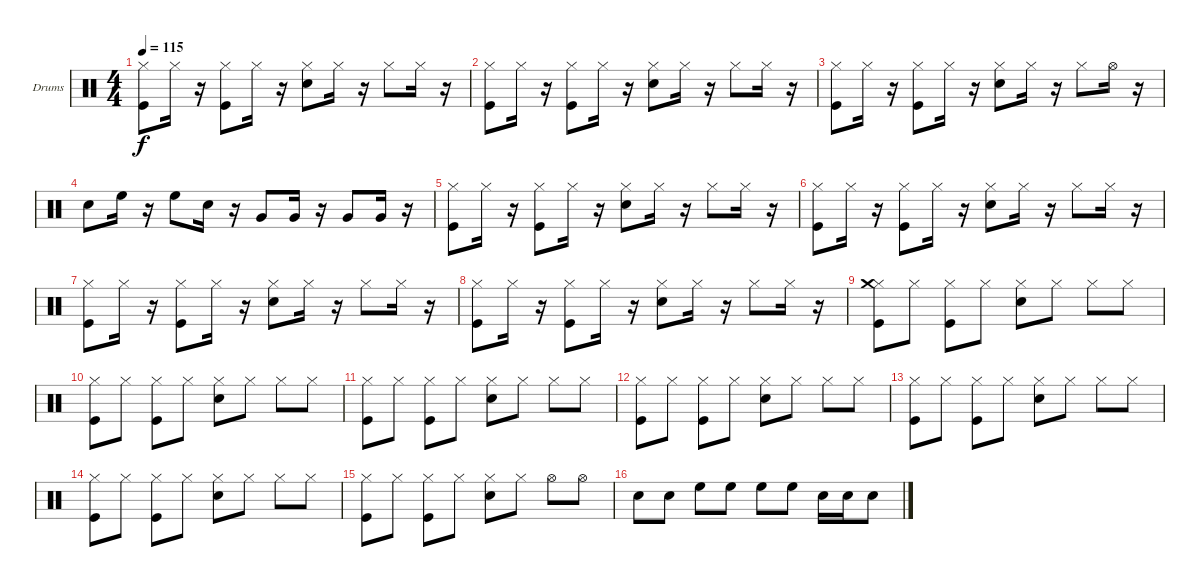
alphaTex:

\bracketExtendMode groupsimilarinstruments
\firstSystemTrackNameOrientation horizontal
\otherSystemsTrackNameOrientation horizontal
\track ("Drumkit" "Drums") {instrument percussion}
\staff {score}
\articulation defaults
\ts (4 4)
\tempo 115
\clef neutral
\ks c
("Hi-Hat (closed)" "Kick (hit)").8{dy f} "Hi-Hat (closed)".16 r.16 ("Hi-Hat (closed)" "Kick (hit)").8 "Hi-Hat (closed)".16 r.16 ("Hi-Hat (closed)" "Snare (hit) 2").8 "Hi-Hat (closed)".16 r.16 "Hi-Hat (closed)".8 "Hi-Hat (closed)".16 r.16 |
("Hi-Hat (closed)" "Kick (hit)").8 "Hi-Hat (closed)".16 r.16 ("Hi-Hat (closed)" "Kick (hit)").8 "Hi-Hat (closed)".16 r.16 ("Hi-Hat (closed)" "Snare (hit) 2").8 "Hi-Hat (closed)".16 r.16 "Hi-Hat (closed)".8 "Hi-Hat (closed)".16 r.16 |
("Hi-Hat (closed)" "Kick (hit)").8 "Hi-Hat (closed)".16 r.16 ("Hi-Hat (closed)" "Kick (hit)").8 "Hi-Hat (closed)".16 r.16 ("Hi-Hat (closed)" "Snare (hit) 2").8 "Hi-Hat (closed)".16 r.16 "Hi-Hat (closed)".8 "Hi-Hat (open)".16 r.16 |
"Snare (hit) 2".8 "High Floor Tom (hit)".16 r.16 "High Floor Tom (hit)".8 "Snare (hit) 2".16 r.16 "Very Low Tom (hit)".8 "Very Low Tom (hit)".16 r.16 "Very Low Tom (hit)".8 "Very Low Tom (hit)".16 r.16 |
("Hi-Hat (closed)" "Kick (hit)").8 "Hi-Hat (closed)".16 r.16 ("Hi-Hat (closed)" "Kick (hit)").8 "Hi-Hat (closed)".16 r.16 ("Hi-Hat (closed)" "Snare (hit) 2").8 "Hi-Hat (closed)".16 r.16 "Hi-Hat (closed)".8 "Hi-Hat (closed)".16 r.16 |
("Hi-Hat (closed)" "Kick (hit)").8 "Hi-Hat (closed)".16 r.16 ("Hi-Hat (closed)" "Kick (hit)").8 "Hi-Hat (closed)".16 r.16 ("Hi-Hat (closed)" "Snare (hit) 2").8 "Hi-Hat (closed)".16 r.16 "Hi-Hat (closed)".8 "Hi-Hat (closed)".16 r.16 |
("Hi-Hat (closed)" "Kick (hit)").8 "Hi-Hat (closed)".16 r.16 ("Hi-Hat (closed)" "Kick (hit)").8 "Hi-Hat (closed)".16 r.16 ("Hi-Hat (closed)" "Snare (hit) 2").8 "Hi-Hat (closed)".16 r.16 "Hi-Hat (closed)".8 "Hi-Hat (closed)".16 r.16 |
("Hi-Hat (closed)" "Kick (hit)").8 "Hi-Hat (closed)".16 r.16 ("Hi-Hat (closed)" "Kick (hit)").8 "Hi-Hat (closed)".16 r.16 ("Hi-Hat (closed)" "Snare (hit) 2").8 "Hi-Hat (closed)".16 r.16 "Hi-Hat (closed)".8 "Hi-Hat (closed)".16 r.16 |
("Hi-Hat (closed)" "Crash medium (hit)" "Kick (hit)").8 "Hi-Hat (closed)".8 ("Hi-Hat (closed)" "Kick (hit)").8 "Hi-Hat (closed)".8 ("Hi-Hat (closed)" "Snare (hit) 2").8 "Hi-Hat (closed)".8 "Hi-Hat (closed)".8 "Hi-Hat (closed)".8 |
("Hi-Hat (closed)" "Kick (hit)").8 "Hi-Hat (closed)".8 ("Hi-Hat (closed)" "Kick (hit)").8 "Hi-Hat (closed)".8 ("Hi-Hat (closed)" "Snare (hit) 2").8 "Hi-Hat (closed)".8 "Hi-Hat (closed)".8 "Hi-Hat (closed)".8 |
("Hi-Hat (closed)" "Kick (hit)").8 "Hi-Hat (closed)".8 ("Hi-Hat (closed)" "Kick (hit)").8 "Hi-Hat (closed)".8 ("Hi-Hat (closed)" "Snare (hit) 2").8 "Hi-Hat (closed)".8 "Hi-Hat (closed)".8 "Hi-Hat (closed)".8 |
("Hi-Hat (closed)" "Kick (hit)").8 "Hi-Hat (closed)".8 ("Hi-Hat (closed)" "Kick (hit)").8 "Hi-Hat (closed)".8 ("Hi-Hat (closed)" "Snare (hit) 2").8 "Hi-Hat (closed)".8 "Hi-Hat (closed)".8 "Hi-Hat (closed)".8 |
("Hi-Hat (closed)" "Kick (hit)").8 "Hi-Hat (closed)".8 ("Hi-Hat (closed)" "Kick (hit)").8 "Hi-Hat (closed)".8 ("Hi-Hat (closed)" "Snare (hit) 2").8 "Hi-Hat (closed)".8 "Hi-Hat (closed)".8 "Hi-Hat (closed)".8 |
("Hi-Hat (closed)" "Kick (hit)").8 "Hi-Hat (closed)".8 ("Hi-Hat (closed)" "Kick (hit)").8 "Hi-Hat (closed)".8 ("Hi-Hat (closed)" "Snare (hit) 2").8 "Hi-Hat (closed)".8 "Hi-Hat (closed)".8 "Hi-Hat (closed)".8 |
("Hi-Hat (closed)" "Kick (hit)").8 "Hi-Hat (closed)".8 ("Hi-Hat (closed)" "Kick (hit)").8 "Hi-Hat (closed)".8 ("Hi-Hat (closed)" "Snare (hit) 2").8 "Hi-Hat (closed)".8 "Hi-Hat (open)".8 "Hi-Hat (open)".8 |
"Snare (hit) 2".8 "Snare (hit) 2".8 "High Floor Tom (hit)".8 "High Floor Tom (hit)".8 "High Floor Tom (hit)".8 "High Floor Tom (hit)".8 "Snare (hit) 2".16 "Snare (hit) 2".16 "Snare (hit) 2".8
